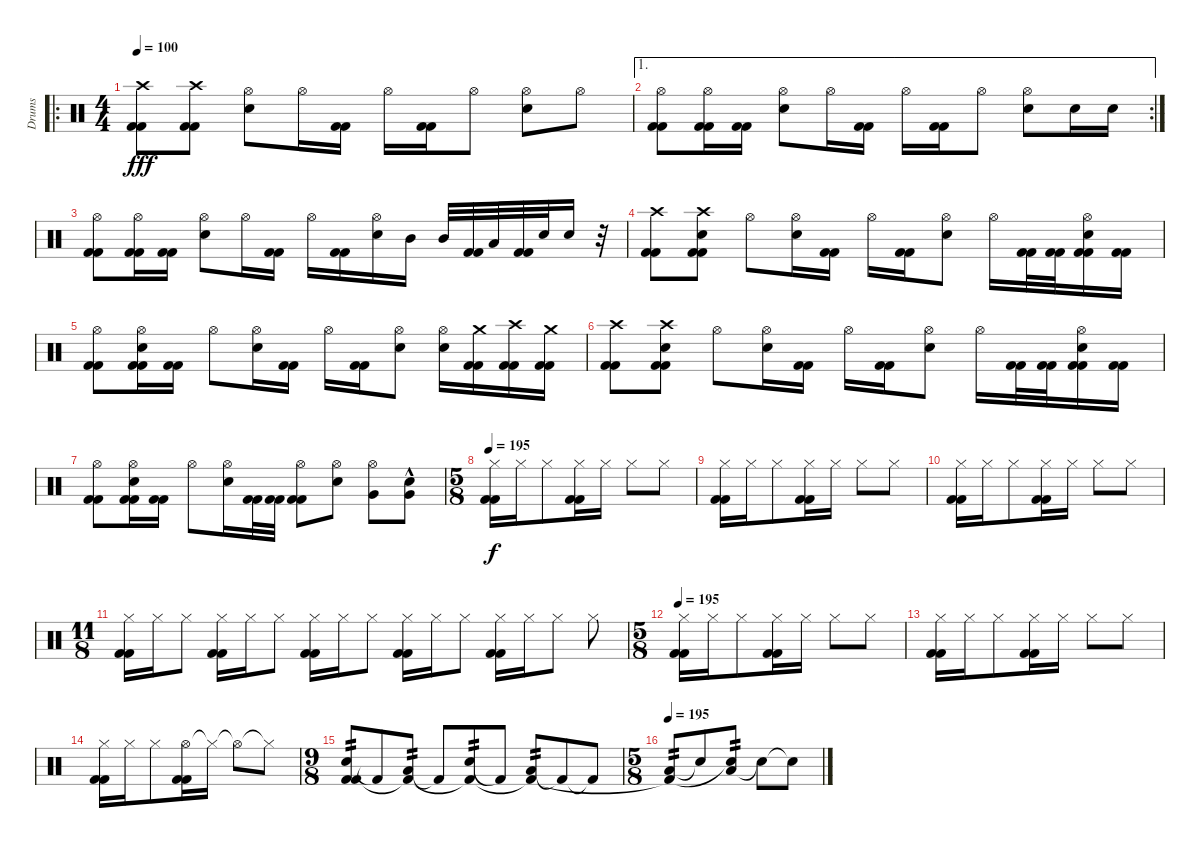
\track ("Drums" "Drums") {instrument percussion}
\staff {score}
\articulation defaults
\ro
\ts (4 4)
\tempo 100
\clef neutral
\ks c
("Crash high (hit)" "Kick (hit) 2" "Kick (hit) 2").8{dy fff} ("Crash high (hit)" "Kick (hit) 2" "Kick (hit) 2").8 ("Hi-Hat (open)" "Electric Snare (hit)").8 "Hi-Hat (open)".16 ("Kick (hit) 2" "Kick (hit) 2").16 "Hi-Hat (open)".16 ("Kick (hit) 2" "Kick (hit) 2").16 "Hi-Hat (open)".8 ("Hi-Hat (open)" "Electric Snare (hit)").8 "Hi-Hat (open)".8 |
\ae 1
\rc 2
("Hi-Hat (open)" "Kick (hit) 2" "Kick (hit) 2").8 ("Hi-Hat (open)" "Kick (hit) 2" "Kick (hit) 2").16 ("Kick (hit) 2" "Kick (hit) 2").16 ("Hi-Hat (open)" "Electric Snare (hit)").8 "Hi-Hat (open)".16 ("Kick (hit) 2" "Kick (hit) 2").16 "Hi-Hat (open)".16 ("Kick (hit) 2" "Kick (hit) 2").16 "Hi-Hat (open)".8 ("Hi-Hat (open)" "Electric Snare (hit)").8 "Electric Snare (hit)".16 "Electric Snare (hit)".16 |
("Hi-Hat (open)" "Kick (hit) 2" "Kick (hit) 2").8 ("Hi-Hat (open)" "Kick (hit) 2" "Kick (hit) 2").16 ("Kick (hit) 2" "Kick (hit) 2").16 ("Hi-Hat (open)" "Electric Snare (hit)").8 "Hi-Hat (open)".16 ("Kick (hit) 2" "Kick (hit) 2").16 "Hi-Hat (open)".16 ("Kick (hit) 2" "Kick (hit) 2").16 ("Hi-Hat (open)" "Electric Snare (hit)").16 "Mid Tom (hit)".16 "Mid Tom (hit)".32 ("Kick (hit) 2" "Kick (hit) 2").32 "Low Tom (hit)".32 ("Kick (hit) 2" "Kick (hit) 2").32 "Electric Snare (hit)".32 "Electric Snare (hit)".16 r.32 |
("Crash high (hit)" "Kick (hit) 2" "Kick (hit) 2").8 ("Crash high (hit)" "Electric Snare (hit)" "Kick (hit) 2" "Kick (hit) 2").8 "Hi-Hat (open)".8 ("Hi-Hat (open)" "Electric Snare (hit)").16 ("Kick (hit) 2" "Kick (hit) 2").16 "Hi-Hat (open)".16 ("Kick (hit) 2" "Kick (hit) 2").16 ("Hi-Hat (open)" "Electric Snare (hit)").8 "Hi-Hat (open)".16 ("Kick (hit) 2" "Kick (hit) 2").32 ("Kick (hit) 2" "Kick (hit) 2").32 ("Hi-Hat (open)" "Electric Snare (hit)" "Kick (hit) 2" "Kick (hit) 2").16 ("Kick (hit) 2" "Kick (hit) 2").16 |
("Hi-Hat (open)" "Kick (hit) 2" "Kick (hit) 2").8 ("Hi-Hat (open)" "Electric Snare (hit)" "Kick (hit) 2" "Kick (hit) 2").16 ("Kick (hit) 2" "Kick (hit) 2").16 "Hi-Hat (open)".8 ("Hi-Hat (open)" "Electric Snare (hit)").16 ("Kick (hit) 2" "Kick (hit) 2").16 "Hi-Hat (open)".16 ("Kick (hit) 2" "Kick (hit) 2").16 ("Hi-Hat (open)" "Electric Snare (hit)").8 ("Hi-Hat (open)" "Electric Snare (hit)").16 ("Crash medium (hit)" "Kick (hit) 2" "Kick (hit) 2").16 ("Crash high (hit)" "Kick (hit) 2" "Kick (hit) 2").16 ("Crash medium (hit)" "Kick (hit) 2" "Kick (hit) 2").16 |
("Crash high (hit)" "Kick (hit) 2" "Kick (hit) 2").8 ("Crash high (hit)" "Electric Snare (hit)" "Kick (hit) 2" "Kick (hit) 2").8 "Hi-Hat (open)".8 ("Hi-Hat (open)" "Electric Snare (hit)").16 ("Kick (hit) 2" "Kick (hit) 2").16 "Hi-Hat (open)".16 ("Kick (hit) 2" "Kick (hit) 2").16 ("Hi-Hat (open)" "Electric Snare (hit)").8 "Hi-Hat (open)".16 ("Kick (hit) 2" "Kick (hit) 2").32 ("Kick (hit) 2" "Kick (hit) 2").32 ("Hi-Hat (open)" "Electric Snare (hit)" "Kick (hit) 2" "Kick (hit) 2").16 ("Kick (hit) 2" "Kick (hit) 2").16 |
("Hi-Hat (open)" "Kick (hit) 2" "Kick (hit) 2").8 ("Hi-Hat (open)" "Electric Snare (hit)" "Kick (hit) 2" "Kick (hit) 2").16 ("Kick (hit) 2" "Kick (hit) 2").16 "Hi-Hat (open)".8 ("Hi-Hat (open)" "Electric Snare (hit)").16 ("Kick (hit) 2" "Kick (hit) 2").32 ("Kick (hit) 2" "Kick (hit) 2").32 ("Hi-Hat (open)" "Kick (hit) 2" "Kick (hit) 2").8 ("Hi-Hat (open)" "Electric Snare (hit)").8 ("Hi-Hat (open)" "Very Low Tom (hit)").8 ("Electric Snare (hit)"{hac} "Very Low Tom (hit)").8 |
\ts (5 8)
\tempo 190
\tempo 195
("Hi-Hat (closed)" "Kick (hit) 2" "Kick (hit) 2").16{dy f} "Hi-Hat (closed)".16 "Hi-Hat (closed)".8 ("Hi-Hat (closed)" "Kick (hit) 2" "Kick (hit) 2").16 "Hi-Hat (closed)".16 "Hi-Hat (closed)".8 "Hi-Hat (closed)".8 |
("Hi-Hat (closed)" "Kick (hit) 2" "Kick (hit) 2").16 "Hi-Hat (closed)".16 "Hi-Hat (closed)".8 ("Hi-Hat (closed)" "Kick (hit) 2" "Kick (hit) 2").16 "Hi-Hat (closed)".16 "Hi-Hat (closed)".8 "Hi-Hat (closed)".8 |
("Hi-Hat (closed)" "Kick (hit) 2" "Kick (hit) 2").16 "Hi-Hat (closed)".16 "Hi-Hat (closed)".8 ("Hi-Hat (closed)" "Kick (hit) 2" "Kick (hit) 2").16 "Hi-Hat (closed)".16 "Hi-Hat (closed)".8 "Hi-Hat (closed)".8 |
\ts (11 8)
("Hi-Hat (closed)" "Kick (hit) 2" "Kick (hit) 2").16 "Hi-Hat (closed)".16 "Hi-Hat (closed)".8 ("Hi-Hat (closed)" "Kick (hit) 2" "Kick (hit) 2").16 "Hi-Hat (closed)".16 "Hi-Hat (closed)".8 ("Hi-Hat (closed)" "Kick (hit) 2" "Kick (hit) 2").16 "Hi-Hat (closed)".16 "Hi-Hat (closed)".8 ("Hi-Hat (closed)" "Kick (hit) 2" "Kick (hit) 2").16 "Hi-Hat (closed)".16 "Hi-Hat (closed)".8 ("Hi-Hat (closed)" "Kick (hit) 2" "Kick (hit) 2").16 "Hi-Hat (closed)".16 "Hi-Hat (closed)".8 "Hi-Hat (closed)".8 |
\ts (5 8)
\tempo 190
\tempo 195
("Hi-Hat (closed)" "Kick (hit) 2" "Kick (hit) 2").16 "Hi-Hat (closed)".16 "Hi-Hat (closed)".8 ("Hi-Hat (closed)" "Kick (hit) 2" "Kick (hit) 2").16 "Hi-Hat (closed)".16 "Hi-Hat (closed)".8 "Hi-Hat (closed)".8 |
("Hi-Hat (closed)" "Kick (hit) 2" "Kick (hit) 2").16 "Hi-Hat (closed)".16 "Hi-Hat (closed)".8 ("Hi-Hat (closed)" "Kick (hit) 2" "Kick (hit) 2").16 "Hi-Hat (closed)".16 "Hi-Hat (closed)".8 "Hi-Hat (closed)".8 |
("Hi-Hat (closed)" "Kick (hit) 2" "Kick (hit) 2").16 "Hi-Hat (closed)".16 "Hi-Hat (closed)".8 ("Hi-Hat (open)" "Kick (hit) 2" "Kick (hit) 2").16 "Hi-Hat (closed)"{t}.16 "Hi-Hat (open)"{t}.8 "Hi-Hat (closed)"{t}.8 |
\ts (9 8)
("Electric Snare (hit)" "Kick (hit) 2" "Kick (hit) 2").8{tp 2} "Kick (hit) 2"{t}.8 ("Low Tom (hit)" "Kick (hit) 2"{t}).8{tp 2} "Kick (hit) 2"{t}.8 ("Electric Snare (hit)" "Kick (hit) 2"{t}).8{tp 2} "Kick (hit) 2"{t}.8 ("Low Tom (hit)" "Kick (hit) 2"{t}).8{tp 2} "Kick (hit) 2"{t}.8 "Kick (hit) 2"{t}.8 |
\ts (5 8)
\tempo 190
\tempo 195
("Low Tom (hit)" "Kick (hit) 2"{t}).8{tp 2} "Snare (hit)"{t}.8 ("Low Tom (hit)" "Snare (hit)"{t}).8{tp 2} "Snare (hit)"{t}.8 "Snare (hit)"{t}.8
